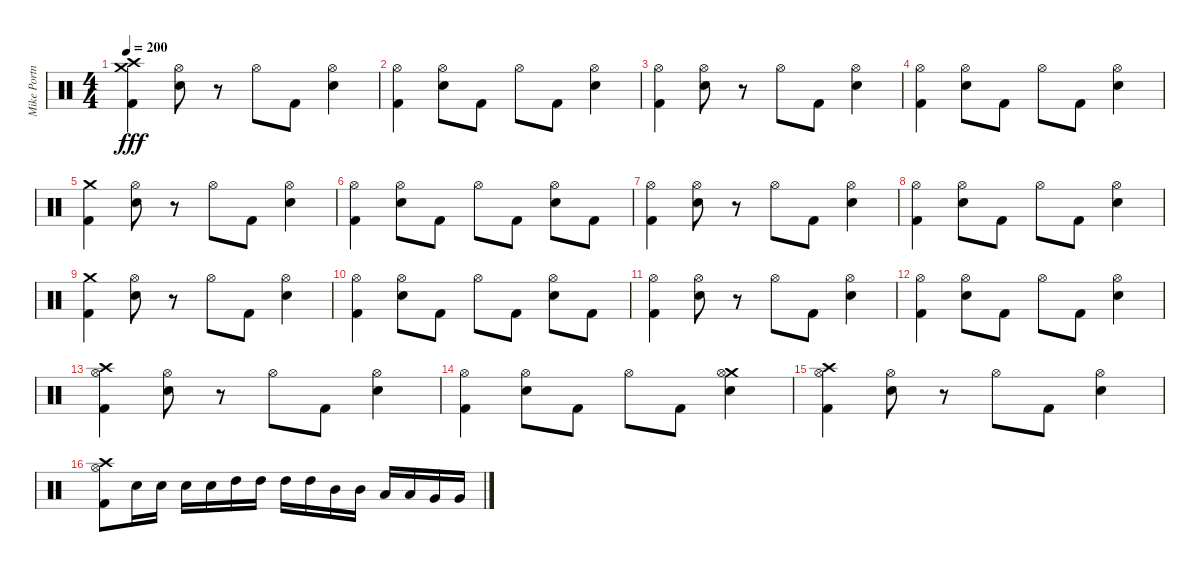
\track ("Mike Portnoy" "Mike Portn") {instrument percussion}
\staff {score}
\articulation defaults
\ts (4 4)
\tempo 200
\clef neutral
\ks c
("Crash high (hit)" "Crash medium (hit)" "Kick (hit) 2").4{dy fff} ("Hi-Hat (open)" "Electric Snare (hit)").8 r.8 "Hi-Hat (open)".8 "Kick (hit) 2".8 ("Hi-Hat (open)" "Electric Snare (hit)").4 |
("Hi-Hat (open)" "Kick (hit) 2").4 ("Hi-Hat (open)" "Electric Snare (hit)").8 "Kick (hit) 2".8 "Hi-Hat (open)".8 "Kick (hit) 2".8 ("Hi-Hat (open)" "Electric Snare (hit)").4 |
("Hi-Hat (open)" "Kick (hit) 2").4 ("Hi-Hat (open)" "Electric Snare (hit)").8 r.8 "Hi-Hat (open)".8 "Kick (hit) 2".8 ("Hi-Hat (open)" "Electric Snare (hit)").4 |
("Hi-Hat (open)" "Kick (hit) 2").4 ("Hi-Hat (open)" "Electric Snare (hit)").8 "Kick (hit) 2".8 "Hi-Hat (open)".8 "Kick (hit) 2".8 ("Hi-Hat (open)" "Electric Snare (hit)").4 |
("Crash medium (hit)" "Kick (hit) 2").4 ("Hi-Hat (open)" "Electric Snare (hit)").8 r.8 "Hi-Hat (open)".8 "Kick (hit) 2".8 ("Hi-Hat (open)" "Electric Snare (hit)").4 |
("Hi-Hat (open)" "Kick (hit) 2").4 ("Hi-Hat (open)" "Electric Snare (hit)").8 "Kick (hit) 2".8 "Hi-Hat (open)".8 "Kick (hit) 2".8 ("Hi-Hat (open)" "Electric Snare (hit)").8 "Kick (hit) 2".8 |
("Hi-Hat (open)" "Kick (hit) 2").4 ("Hi-Hat (open)" "Electric Snare (hit)").8 r.8 "Hi-Hat (open)".8 "Kick (hit) 2".8 ("Hi-Hat (open)" "Electric Snare (hit)").4 |
("Hi-Hat (open)" "Kick (hit) 2").4 ("Hi-Hat (open)" "Electric Snare (hit)").8 "Kick (hit) 2".8 "Hi-Hat (open)".8 "Kick (hit) 2".8 ("Hi-Hat (open)" "Electric Snare (hit)").4 |
("Crash medium (hit)" "Kick (hit) 2").4 ("Hi-Hat (open)" "Electric Snare (hit)").8 r.8 "Hi-Hat (open)".8 "Kick (hit) 2".8 ("Hi-Hat (open)" "Electric Snare (hit)").4 |
("Hi-Hat (open)" "Kick (hit) 2").4 ("Hi-Hat (open)" "Electric Snare (hit)").8 "Kick (hit) 2".8 "Hi-Hat (open)".8 "Kick (hit) 2".8 ("Hi-Hat (open)" "Electric Snare (hit)").8 "Kick (hit) 2".8 |
("Hi-Hat (open)" "Kick (hit) 2").4 ("Hi-Hat (open)" "Electric Snare (hit)").8 r.8 "Hi-Hat (open)".8 "Kick (hit) 2".8 ("Hi-Hat (open)" "Electric Snare (hit)").4 |
("Hi-Hat (open)" "Kick (hit) 2").4 ("Hi-Hat (open)" "Electric Snare (hit)").8 "Kick (hit) 2".8 "Hi-Hat (open)".8 "Kick (hit) 2".8 ("Hi-Hat (open)" "Electric Snare (hit)").4 |
("Crash high (hit)" "Hi-Hat (open)" "Kick (hit) 2").4 ("Hi-Hat (open)" "Electric Snare (hit)").8 r.8 "Hi-Hat (open)".8 "Kick (hit) 2".8 ("Hi-Hat (open)" "Electric Snare (hit)").4 |
("Hi-Hat (open)" "Kick (hit) 2").4 ("Hi-Hat (open)" "Electric Snare (hit)").8 "Kick (hit) 2".8 "Hi-Hat (open)".8 "Kick (hit) 2".8 ("Crash medium (hit)" "Hi-Hat (open)" "Electric Snare (hit)").4 |
("Crash high (hit)" "Hi-Hat (open)" "Kick (hit) 2").4 ("Hi-Hat (open)" "Electric Snare (hit)").8 r.8 "Hi-Hat (open)".8 "Kick (hit) 2".8 ("Hi-Hat (open)" "Electric Snare (hit)").4 |
("Crash high (hit)" "Hi-Hat (open)" "Kick (hit) 2").8 "Electric Snare (hit)".16 "Electric Snare (hit)".16 "Electric Snare (hit)".16 "Electric Snare (hit)".16 "High Tom (hit)".16 "High Tom (hit)".16 "High Tom (hit)".16 "High Tom (hit)".16 "Mid Tom (hit)".16 "Mid Tom (hit)".16 "Low Tom (hit)".16 "Low Tom (hit)".16 "Very Low Tom (hit)".16 "Very Low Tom (hit)".16
